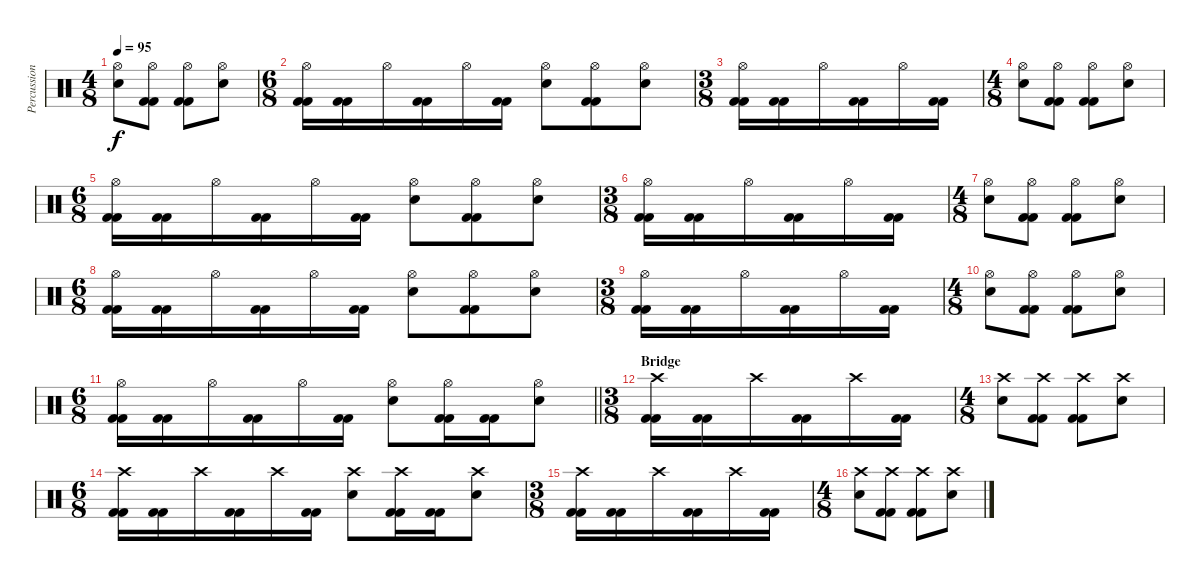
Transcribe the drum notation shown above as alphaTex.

\track ("Percussion" "Percussion") {instrument percussion}
\staff {score}
\articulation defaults
\ts (4 8)
\tempo 95
\clef neutral
\ks c
("Hi-Hat (open)" "Electric Snare (hit)").8{dy f} ("Hi-Hat (open)" "Kick (hit) 2" "Kick (hit) 2").8 ("Hi-Hat (open)" "Kick (hit) 2" "Kick (hit) 2").8 ("Hi-Hat (open)" "Electric Snare (hit)").8 |
\ts (6 8)
("Hi-Hat (open)" "Kick (hit) 2" "Kick (hit) 2").16 ("Kick (hit) 2" "Kick (hit) 2").16 "Hi-Hat (open)".16 ("Kick (hit) 2" "Kick (hit) 2").16 "Hi-Hat (open)".16 ("Kick (hit) 2" "Kick (hit) 2").16 ("Hi-Hat (open)" "Electric Snare (hit)").8 ("Hi-Hat (open)" "Kick (hit) 2" "Kick (hit) 2").8 ("Hi-Hat (open)" "Electric Snare (hit)").8 |
\ts (3 8)
("Hi-Hat (open)" "Kick (hit) 2" "Kick (hit) 2").16 ("Kick (hit) 2" "Kick (hit) 2").16 "Hi-Hat (open)".16 ("Kick (hit) 2" "Kick (hit) 2").16 "Hi-Hat (open)".16 ("Kick (hit) 2" "Kick (hit) 2").16 |
\ts (4 8)
("Hi-Hat (open)" "Electric Snare (hit)").8 ("Hi-Hat (open)" "Kick (hit) 2" "Kick (hit) 2").8 ("Hi-Hat (open)" "Kick (hit) 2" "Kick (hit) 2").8 ("Hi-Hat (open)" "Electric Snare (hit)").8 |
\ts (6 8)
("Hi-Hat (open)" "Kick (hit) 2" "Kick (hit) 2").16 ("Kick (hit) 2" "Kick (hit) 2").16 "Hi-Hat (open)".16 ("Kick (hit) 2" "Kick (hit) 2").16 "Hi-Hat (open)".16 ("Kick (hit) 2" "Kick (hit) 2").16 ("Hi-Hat (open)" "Electric Snare (hit)").8 ("Hi-Hat (open)" "Kick (hit) 2" "Kick (hit) 2").8 ("Hi-Hat (open)" "Electric Snare (hit)").8 |
\ts (3 8)
("Hi-Hat (open)" "Kick (hit) 2" "Kick (hit) 2").16 ("Kick (hit) 2" "Kick (hit) 2").16 "Hi-Hat (open)".16 ("Kick (hit) 2" "Kick (hit) 2").16 "Hi-Hat (open)".16 ("Kick (hit) 2" "Kick (hit) 2").16 |
\ts (4 8)
("Hi-Hat (open)" "Electric Snare (hit)").8 ("Hi-Hat (open)" "Kick (hit) 2" "Kick (hit) 2").8 ("Hi-Hat (open)" "Kick (hit) 2" "Kick (hit) 2").8 ("Hi-Hat (open)" "Electric Snare (hit)").8 |
\ts (6 8)
("Hi-Hat (open)" "Kick (hit) 2" "Kick (hit) 2").16 ("Kick (hit) 2" "Kick (hit) 2").16 "Hi-Hat (open)".16 ("Kick (hit) 2" "Kick (hit) 2").16 "Hi-Hat (open)".16 ("Kick (hit) 2" "Kick (hit) 2").16 ("Hi-Hat (open)" "Electric Snare (hit)").8 ("Hi-Hat (open)" "Kick (hit) 2" "Kick (hit) 2").8 ("Hi-Hat (open)" "Electric Snare (hit)").8 |
\ts (3 8)
("Hi-Hat (open)" "Kick (hit) 2" "Kick (hit) 2").16 ("Kick (hit) 2" "Kick (hit) 2").16 "Hi-Hat (open)".16 ("Kick (hit) 2" "Kick (hit) 2").16 "Hi-Hat (open)".16 ("Kick (hit) 2" "Kick (hit) 2").16 |
\ts (4 8)
("Hi-Hat (open)" "Electric Snare (hit)").8 ("Hi-Hat (open)" "Kick (hit) 2" "Kick (hit) 2").8 ("Hi-Hat (open)" "Kick (hit) 2" "Kick (hit) 2").8 ("Hi-Hat (open)" "Electric Snare (hit)").8 |
\ts (6 8)
\barLineRight lightlight
("Hi-Hat (open)" "Kick (hit) 2" "Kick (hit) 2").16 ("Kick (hit) 2" "Kick (hit) 2").16 "Hi-Hat (open)".16 ("Kick (hit) 2" "Kick (hit) 2").16 "Hi-Hat (open)".16 ("Kick (hit) 2" "Kick (hit) 2").16 ("Hi-Hat (open)" "Electric Snare (hit)").8 ("Hi-Hat (open)" "Kick (hit) 2" "Kick (hit) 2").16 ("Kick (hit) 2" "Kick (hit) 2").16 ("Hi-Hat (open)" "Electric Snare (hit)").8 |
\ts (3 8)
\section ("" "Bridge")
("Crash high (hit)" "Kick (hit) 2" "Kick (hit) 2").16 ("Kick (hit) 2" "Kick (hit) 2").16 "Crash high (hit)".16 ("Kick (hit) 2" "Kick (hit) 2").16 "Crash high (hit)".16 ("Kick (hit) 2" "Kick (hit) 2").16 |
\ts (4 8)
("Crash high (hit)" "Electric Snare (hit)").8 ("Crash high (hit)" "Kick (hit) 2" "Kick (hit) 2").8 ("Crash high (hit)" "Kick (hit) 2" "Kick (hit) 2").8 ("Crash high (hit)" "Electric Snare (hit)").8 |
\ts (6 8)
("Crash high (hit)" "Kick (hit) 2" "Kick (hit) 2").16 ("Kick (hit) 2" "Kick (hit) 2").16 "Crash high (hit)".16 ("Kick (hit) 2" "Kick (hit) 2").16 "Crash high (hit)".16 ("Kick (hit) 2" "Kick (hit) 2").16 ("Crash high (hit)" "Electric Snare (hit)").8 ("Crash high (hit)" "Kick (hit) 2" "Kick (hit) 2").16 ("Kick (hit) 2" "Kick (hit) 2").16 ("Crash high (hit)" "Electric Snare (hit)").8 |
\ts (3 8)
("Crash high (hit)" "Kick (hit) 2" "Kick (hit) 2").16 ("Kick (hit) 2" "Kick (hit) 2").16 "Crash high (hit)".16 ("Kick (hit) 2" "Kick (hit) 2").16 "Crash high (hit)".16 ("Kick (hit) 2" "Kick (hit) 2").16 |
\ts (4 8)
("Crash high (hit)" "Electric Snare (hit)").8 ("Crash high (hit)" "Kick (hit) 2" "Kick (hit) 2").8 ("Crash high (hit)" "Kick (hit) 2" "Kick (hit) 2").8 ("Crash high (hit)" "Electric Snare (hit)").8
